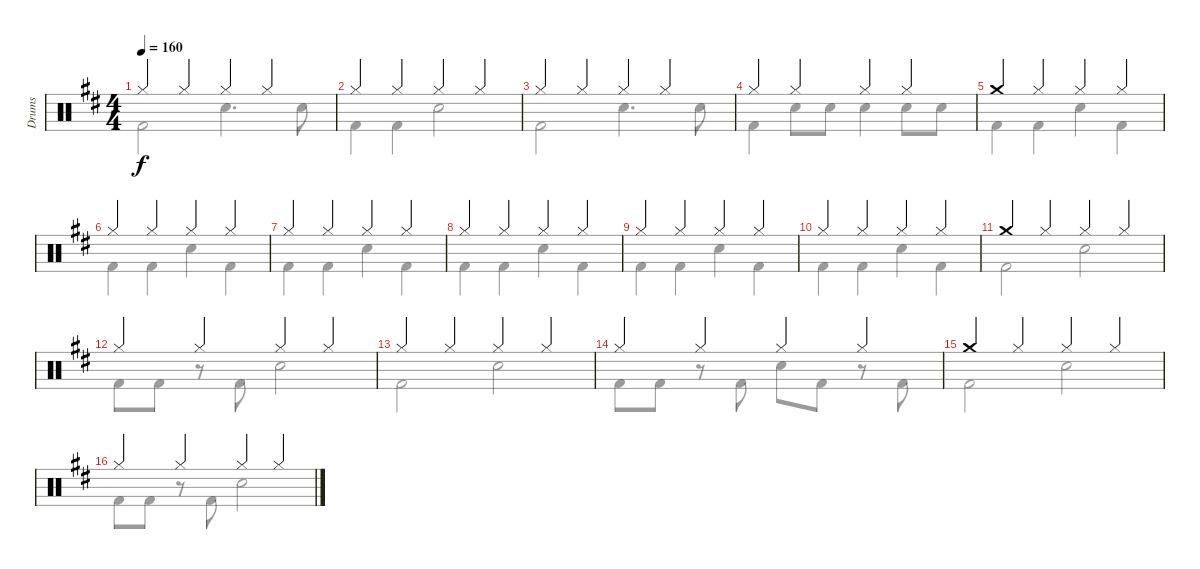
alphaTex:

\track ("Drums" "Drums") {instrument percussion}
\staff {score}
\articulation defaults
\voice
\ts (4 4)
\tempo 160
\clef neutral
\ks d "Hi-Hat (closed)".4{dy f} "Hi-Hat (closed)".4 "Hi-Hat (closed)".4 "Hi-Hat (closed)".4
|
"Hi-Hat (closed)".4 "Hi-Hat (closed)".4 "Hi-Hat (closed)".4 "Hi-Hat (closed)".4 |
"Hi-Hat (closed)".4 "Hi-Hat (closed)".4 "Hi-Hat (closed)".4 "Hi-Hat (closed)".4 |
"Hi-Hat (closed)".4 "Hi-Hat (closed)".4 "Hi-Hat (closed)".4 "Hi-Hat (closed)".4 |
"Crash medium (hit)".4 "Hi-Hat (closed)".4 "Hi-Hat (closed)".4 "Hi-Hat (closed)".4 |
"Hi-Hat (closed)".4 "Hi-Hat (closed)".4 "Hi-Hat (closed)".4 "Hi-Hat (closed)".4 |
"Hi-Hat (closed)".4 "Hi-Hat (closed)".4 "Hi-Hat (closed)".4 "Hi-Hat (closed)".4 |
"Hi-Hat (closed)".4 "Hi-Hat (closed)".4 "Hi-Hat (closed)".4 "Hi-Hat (closed)".4 |
"Hi-Hat (closed)".4 "Hi-Hat (closed)".4 "Hi-Hat (closed)".4 "Hi-Hat (closed)".4 |
"Hi-Hat (closed)".4 "Hi-Hat (closed)".4 "Hi-Hat (closed)".4 "Hi-Hat (closed)".4 |
"Crash medium (hit)".4 "Hi-Hat (closed)".4 "Hi-Hat (closed)".4 "Hi-Hat (closed)".4 |
"Hi-Hat (closed)".4 "Hi-Hat (closed)".4 "Hi-Hat (closed)".4 "Hi-Hat (closed)".4 |
"Hi-Hat (closed)".4 "Hi-Hat (closed)".4 "Hi-Hat (closed)".4 "Hi-Hat (closed)".4 |
"Hi-Hat (closed)".4 "Hi-Hat (closed)".4 "Hi-Hat (closed)".4 "Hi-Hat (closed)".4 |
"Crash medium (hit)".4 "Hi-Hat (closed)".4 "Hi-Hat (closed)".4 "Hi-Hat (closed)".4 |
"Hi-Hat (closed)".4 "Hi-Hat (closed)".4 "Hi-Hat (closed)".4 "Hi-Hat (closed)".4
\voice
\clef neutral
\ottava regular
\simile none
\ks d "Kick (hit) 2".2{dy f} "Snare (hit) 2".4{d} "Snare (hit) 2".8
|
"Kick (hit) 2".4 "Kick (hit) 2".4 "Snare (hit) 2".2 |
"Kick (hit) 2".2 "Snare (hit) 2".4{d} "Snare (hit) 2".8 |
"Kick (hit) 2".4 "Snare (hit) 2".8 "Snare (hit) 2".8 "Snare (hit) 2".4 "Snare (hit) 2".8 "Snare (hit) 2".8 |
"Kick (hit) 2".4 "Kick (hit) 2".4 "Snare (hit) 2".4 "Kick (hit) 2".4 |
"Kick (hit) 2".4 "Kick (hit) 2".4 "Snare (hit) 2".4 "Kick (hit) 2".4 |
"Kick (hit) 2".4 "Kick (hit) 2".4 "Snare (hit) 2".4 "Kick (hit) 2".4 |
"Kick (hit) 2".4 "Kick (hit) 2".4 "Snare (hit) 2".4 "Kick (hit) 2".4 |
"Kick (hit) 2".4 "Kick (hit) 2".4 "Snare (hit) 2".4 "Kick (hit) 2".4 |
"Kick (hit) 2".4 "Kick (hit) 2".4 "Snare (hit) 2".4 "Kick (hit) 2".4 |
"Kick (hit) 2".2 "Snare (hit) 2".2 |
"Kick (hit) 2".8 "Kick (hit) 2".8 r.8 "Kick (hit) 2".8 "Snare (hit) 2".2 |
"Kick (hit) 2".2 "Snare (hit) 2".2 |
"Kick (hit) 2".8 "Kick (hit) 2".8 r.8 "Kick (hit) 2".8 "Snare (hit) 2".8 "Kick (hit) 2".8 r.8 "Kick (hit) 2".8 |
"Kick (hit) 2".2 "Snare (hit) 2".2 |
"Kick (hit) 2".8 "Kick (hit) 2".8 r.8 "Kick (hit) 2".8 "Snare (hit) 2".2
